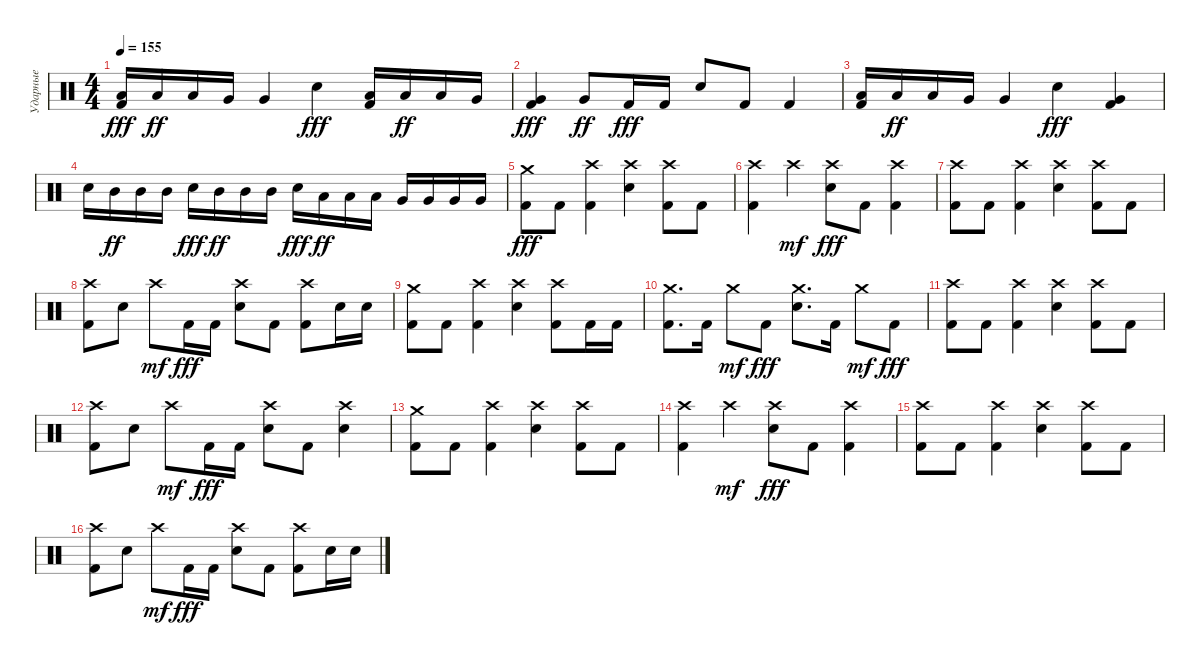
\track ("Ударные" "Ударные") {instrument percussion}
\staff {score}
\articulation defaults
\ts (4 4)
\tempo 155
\clef neutral
\ks c
("Low Tom (hit)" "Kick (hit) 2").16{dy fff} "Low Tom (hit)".16{dy ff} "Low Tom (hit)".16 "Very Low Tom (hit)".16 "Very Low Tom (hit)".4 "Electric Snare (hit)".4{dy fff} ("Low Tom (hit)" "Kick (hit) 2").16 "Low Tom (hit)".16{dy ff} "Low Tom (hit)".16 "Very Low Tom (hit)".16 |
("Very Low Tom (hit)" "Kick (hit) 2").4{dy fff} "Very Low Tom (hit)".8{dy ff} "Kick (hit) 2".16{dy fff} "Kick (hit) 2".16 "Electric Snare (hit)".8 "Kick (hit) 2".8 "Kick (hit) 2".4 |
("Low Tom (hit)" "Kick (hit) 2").16 "Low Tom (hit)".16{dy ff} "Low Tom (hit)".16 "Very Low Tom (hit)".16 "Very Low Tom (hit)".4 "Electric Snare (hit)".4{dy fff} ("Very Low Tom (hit)" "Kick (hit) 2").4 |
"Electric Snare (hit)".16 "Mid Tom (hit)".16{dy ff} "Mid Tom (hit)".16 "Mid Tom (hit)".16 "Electric Snare (hit)".16{dy fff} "Mid Tom (hit)".16{dy ff} "Mid Tom (hit)".16 "Mid Tom (hit)".16 "Electric Snare (hit)".16{dy fff} "Low Tom (hit)".16{dy ff} "Low Tom (hit)".16 "Low Tom (hit)".16 "Very Low Tom (hit)".16 "Very Low Tom (hit)".16 "Very Low Tom (hit)".16 "Very Low Tom (hit)".16 |
("Crash medium (hit)" "Kick (hit) 2").8{dy fff} "Kick (hit) 2".8 ("Crash high (hit)" "Kick (hit) 2").4 ("Crash high (hit)" "Electric Snare (hit)").4 ("Crash high (hit)" "Kick (hit) 2").8 "Kick (hit) 2".8 |
("Crash high (hit)" "Kick (hit) 2").4 "Crash high (hit)".4{dy mf} ("Crash high (hit)" "Electric Snare (hit)").8{dy fff} "Kick (hit) 2".8 ("Crash high (hit)" "Kick (hit) 2").4 |
("Crash high (hit)" "Kick (hit) 2").8 "Kick (hit) 2".8 ("Crash high (hit)" "Kick (hit) 2").4 ("Crash high (hit)" "Electric Snare (hit)").4 ("Crash high (hit)" "Kick (hit) 2").8 "Kick (hit) 2".8 |
("Crash high (hit)" "Kick (hit) 2").8 "Electric Snare (hit)".8 "Crash high (hit)".8{dy mf} "Kick (hit) 2".16{dy fff} "Kick (hit) 2".16 ("Crash high (hit)" "Electric Snare (hit)").8 "Kick (hit) 2".8 ("Crash high (hit)" "Kick (hit) 2").8 "Electric Snare (hit)".16 "Electric Snare (hit)".16 |
("Crash medium (hit)" "Kick (hit) 2").8 "Kick (hit) 2".8 ("Crash high (hit)" "Kick (hit) 2").4 ("Crash high (hit)" "Electric Snare (hit)").4 ("Crash high (hit)" "Kick (hit) 2").8 "Kick (hit) 2".16 "Kick (hit) 2".16 |
("Crash medium (hit)" "Kick (hit) 2").8{d} "Kick (hit) 2".16 "Crash medium (hit)".8{dy mf} "Kick (hit) 2".8{dy fff} ("Crash medium (hit)" "Electric Snare (hit)").8{d} "Kick (hit) 2".16 "Crash medium (hit)".8{dy mf} "Kick (hit) 2".8{dy fff} |
("Crash high (hit)" "Kick (hit) 2").8 "Kick (hit) 2".8 ("Crash high (hit)" "Kick (hit) 2").4 ("Crash high (hit)" "Electric Snare (hit)").4 ("Crash high (hit)" "Kick (hit) 2").8 "Kick (hit) 2".8 |
("Crash high (hit)" "Kick (hit) 2").8 "Electric Snare (hit)".8 "Crash high (hit)".8{dy mf} "Kick (hit) 2".16{dy fff} "Kick (hit) 2".16 ("Crash high (hit)" "Electric Snare (hit)").8 "Kick (hit) 2".8 ("Crash high (hit)" "Electric Snare (hit)").4 |
("Crash medium (hit)" "Kick (hit) 2").8 "Kick (hit) 2".8 ("Crash high (hit)" "Kick (hit) 2").4 ("Crash high (hit)" "Electric Snare (hit)").4 ("Crash high (hit)" "Kick (hit) 2").8 "Kick (hit) 2".8 |
("Crash high (hit)" "Kick (hit) 2").4 "Crash high (hit)".4{dy mf} ("Crash high (hit)" "Electric Snare (hit)").8{dy fff} "Kick (hit) 2".8 ("Crash high (hit)" "Kick (hit) 2").4 |
("Crash high (hit)" "Kick (hit) 2").8 "Kick (hit) 2".8 ("Crash high (hit)" "Kick (hit) 2").4 ("Crash high (hit)" "Electric Snare (hit)").4 ("Crash high (hit)" "Kick (hit) 2").8 "Kick (hit) 2".8 |
("Crash high (hit)" "Kick (hit) 2").8 "Electric Snare (hit)".8 "Crash high (hit)".8{dy mf} "Kick (hit) 2".16{dy fff} "Kick (hit) 2".16 ("Crash high (hit)" "Electric Snare (hit)").8 "Kick (hit) 2".8 ("Crash high (hit)" "Kick (hit) 2").8 "Electric Snare (hit)".16 "Electric Snare (hit)".16
